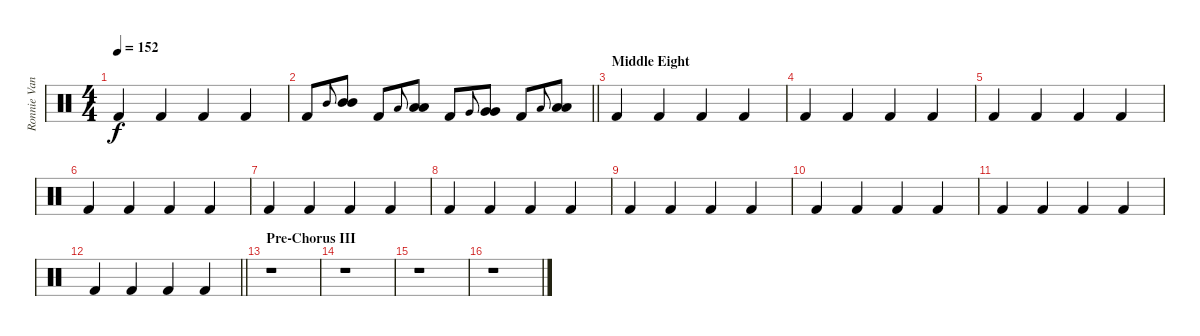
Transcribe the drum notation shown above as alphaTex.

\track ("Ronnie Vannucci Jr." "Ronnie Van") {instrument percussion}
\staff
\articulation defaults
\ts (4 4)
\tempo 152
\clef neutral
\ks c "Kick (hit) 2".4{dy f} "Kick (hit) 2".4 "Kick (hit) 2".4 "Kick (hit) 2".4
|
\barLineRight lightlight "Kick (hit) 2".8 "Mid Tom (hit)".8{gr onbeat}
("Mid Tom (hit)" "Mid Tom (hit)").8 "Kick (hit) 2".8 "Low Tom (hit)".8{gr onbeat} ("Low Tom (hit)" "Low Tom (hit)").8 "Kick (hit) 2".8 "Very Low Tom (hit)".8{gr onbeat} ("Very Low Tom (hit)" "Very Low Tom (hit)").8 "Kick (hit) 2".8 "Low Floor Tom (hit)".8{gr onbeat} ("Low Floor Tom (hit)" "Low Floor Tom (hit)").8 |
\section ("" "Middle Eight")
"Kick (hit) 2".4 "Kick (hit) 2".4 "Kick (hit) 2".4 "Kick (hit) 2".4 |
"Kick (hit) 2".4 "Kick (hit) 2".4 "Kick (hit) 2".4 "Kick (hit) 2".4 |
"Kick (hit) 2".4 "Kick (hit) 2".4 "Kick (hit) 2".4 "Kick (hit) 2".4 |
"Kick (hit) 2".4 "Kick (hit) 2".4 "Kick (hit) 2".4 "Kick (hit) 2".4 |
"Kick (hit) 2".4 "Kick (hit) 2".4 "Kick (hit) 2".4 "Kick (hit) 2".4 |
"Kick (hit) 2".4 "Kick (hit) 2".4 "Kick (hit) 2".4 "Kick (hit) 2".4 |
"Kick (hit) 2".4 "Kick (hit) 2".4 "Kick (hit) 2".4 "Kick (hit) 2".4 |
"Kick (hit) 2".4 "Kick (hit) 2".4 "Kick (hit) 2".4 "Kick (hit) 2".4 |
"Kick (hit) 2".4 "Kick (hit) 2".4 "Kick (hit) 2".4 "Kick (hit) 2".4 |
\barLineRight lightlight "Kick (hit) 2".4 "Kick (hit) 2".4 "Kick (hit) 2".4 "Kick (hit) 2".4
|
\section ("" "Pre-Chorus III")
r.1 |
r.1 |
r.1 |
r.1
